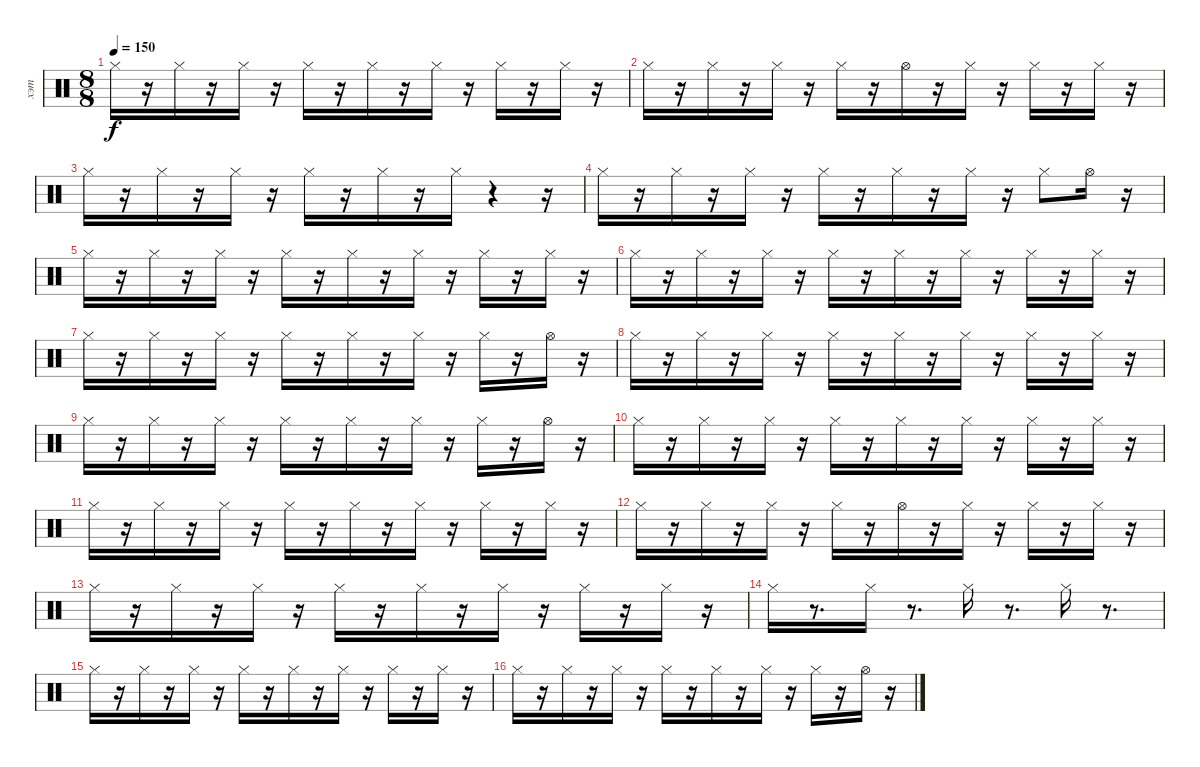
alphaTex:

\track ("хэт" "хэт") {instrument percussion}
\staff {score}
\articulation defaults
\ts (8 8)
\tempo 150
\clef neutral
\ks c "Hi-Hat (closed)".16{dy f}
r.16 "Hi-Hat (closed)".16 r.16 "Hi-Hat (closed)".16 r.16 "Hi-Hat (closed)".16 r.16 "Hi-Hat (closed)".16 r.16 "Hi-Hat (closed)".16 r.16 "Hi-Hat (closed)".16 r.16 "Hi-Hat (closed)".16 r.16 |
"Hi-Hat (closed)".16 r.16 "Hi-Hat (closed)".16 r.16 "Hi-Hat (closed)".16 r.16 "Hi-Hat (closed)".16 r.16 "Hi-Hat (open)".16 r.16 "Hi-Hat (closed)".16 r.16 "Hi-Hat (closed)".16 r.16 "Hi-Hat (closed)".16 r.16 |
"Hi-Hat (closed)".16 r.16 "Hi-Hat (closed)".16 r.16 "Hi-Hat (closed)".16 r.16 "Hi-Hat (closed)".16 r.16 "Hi-Hat (closed)".16 r.16 "Hi-Hat (closed)".16 r.4 r.16 |
"Hi-Hat (closed)".16 r.16 "Hi-Hat (closed)".16 r.16 "Hi-Hat (closed)".16 r.16 "Hi-Hat (closed)".16 r.16 "Hi-Hat (closed)".16 r.16 "Hi-Hat (closed)".16 r.16 "Hi-Hat (closed)".8 "Hi-Hat (open)".16 r.16 |
"Hi-Hat (closed)".16 r.16 "Hi-Hat (closed)".16 r.16 "Hi-Hat (closed)".16 r.16 "Hi-Hat (closed)".16 r.16 "Hi-Hat (closed)".16 r.16 "Hi-Hat (closed)".16 r.16 "Hi-Hat (closed)".16 r.16 "Hi-Hat (closed)".16 r.16 |
"Hi-Hat (closed)".16 r.16 "Hi-Hat (closed)".16 r.16 "Hi-Hat (closed)".16 r.16 "Hi-Hat (closed)".16 r.16 "Hi-Hat (closed)".16 r.16 "Hi-Hat (closed)".16 r.16 "Hi-Hat (closed)".16 r.16 "Hi-Hat (closed)".16 r.16 |
"Hi-Hat (closed)".16 r.16 "Hi-Hat (closed)".16 r.16 "Hi-Hat (closed)".16 r.16 "Hi-Hat (closed)".16 r.16 "Hi-Hat (closed)".16 r.16 "Hi-Hat (closed)".16 r.16 "Hi-Hat (closed)".16 r.16 "Hi-Hat (open)".16 r.16 |
"Hi-Hat (closed)".16 r.16 "Hi-Hat (closed)".16 r.16 "Hi-Hat (closed)".16 r.16 "Hi-Hat (closed)".16 r.16 "Hi-Hat (closed)".16 r.16 "Hi-Hat (closed)".16 r.16 "Hi-Hat (closed)".16 r.16 "Hi-Hat (closed)".16 r.16 |
"Hi-Hat (closed)".16 r.16 "Hi-Hat (closed)".16 r.16 "Hi-Hat (closed)".16 r.16 "Hi-Hat (closed)".16 r.16 "Hi-Hat (closed)".16 r.16 "Hi-Hat (closed)".16 r.16 "Hi-Hat (closed)".16 r.16 "Hi-Hat (open)".16 r.16 |
"Hi-Hat (closed)".16 r.16 "Hi-Hat (closed)".16 r.16 "Hi-Hat (closed)".16 r.16 "Hi-Hat (closed)".16 r.16 "Hi-Hat (closed)".16 r.16 "Hi-Hat (closed)".16 r.16 "Hi-Hat (closed)".16 r.16 "Hi-Hat (closed)".16 r.16 |
"Hi-Hat (closed)".16 r.16 "Hi-Hat (closed)".16 r.16 "Hi-Hat (closed)".16 r.16 "Hi-Hat (closed)".16 r.16 "Hi-Hat (closed)".16 r.16 "Hi-Hat (closed)".16 r.16 "Hi-Hat (closed)".16 r.16 "Hi-Hat (closed)".16 r.16 |
"Hi-Hat (closed)".16 r.16 "Hi-Hat (closed)".16 r.16 "Hi-Hat (closed)".16 r.16 "Hi-Hat (closed)".16 r.16 "Hi-Hat (open)".16 r.16 "Hi-Hat (closed)".16 r.16 "Hi-Hat (closed)".16 r.16 "Hi-Hat (closed)".16 r.16 |
"Hi-Hat (closed)".16 r.16 "Hi-Hat (closed)".16 r.16 "Hi-Hat (closed)".16 r.16 "Hi-Hat (closed)".16 r.16 "Hi-Hat (closed)".16 r.16 "Hi-Hat (closed)".16 r.16 "Hi-Hat (closed)".16 r.16 "Hi-Hat (closed)".16 r.16 |
"Hi-Hat (closed)".16 r.8{d} "Hi-Hat (closed)".16 r.8{d} "Hi-Hat (closed)".16 r.8{d} "Hi-Hat (closed)".16 r.8{d} |
"Hi-Hat (closed)".16 r.16 "Hi-Hat (closed)".16 r.16 "Hi-Hat (closed)".16 r.16 "Hi-Hat (closed)".16 r.16 "Hi-Hat (closed)".16 r.16 "Hi-Hat (closed)".16 r.16 "Hi-Hat (closed)".16 r.16 "Hi-Hat (closed)".16 r.16 |
"Hi-Hat (closed)".16 r.16 "Hi-Hat (closed)".16 r.16 "Hi-Hat (closed)".16 r.16 "Hi-Hat (closed)".16 r.16 "Hi-Hat (closed)".16 r.16 "Hi-Hat (closed)".16 r.16 "Hi-Hat (closed)".16 r.16 "Hi-Hat (open)".16 r.16
